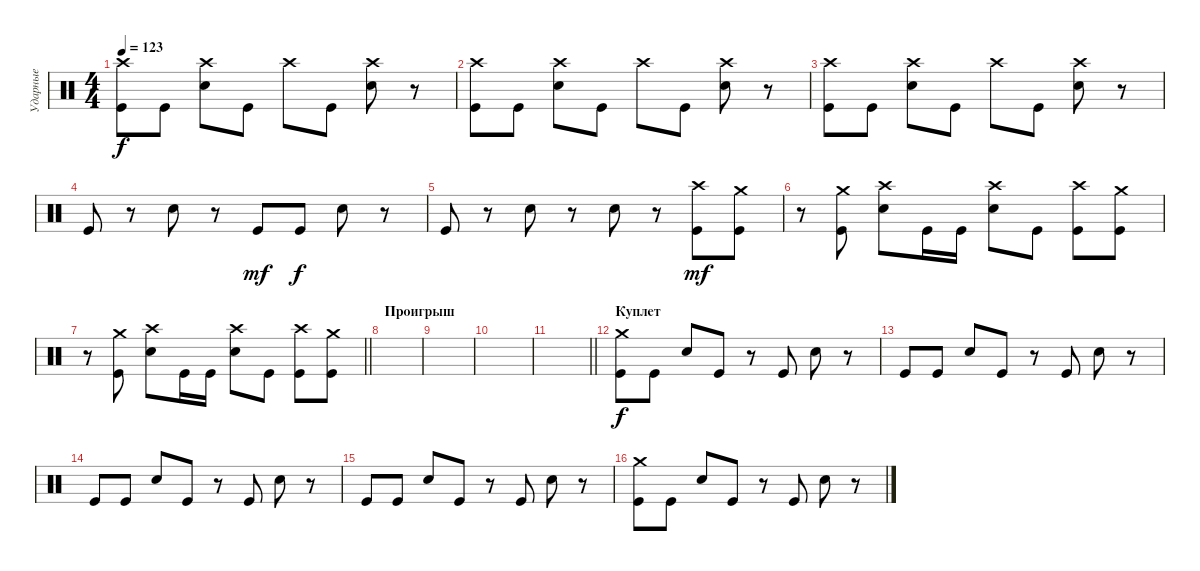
\track ("Ударные" "Ударные") {instrument percussion}
\staff {score}
\articulation defaults
\ts (4 4)
\tempo 123
\clef neutral
\ks c
("Crash high (hit)" "Kick (hit)").8{dy f} "Kick (hit)".8 ("Crash high (hit)" "Electric Snare (hit)").8 "Kick (hit)".8 "Crash high (hit)".8 "Kick (hit)".8 ("Crash high (hit)" "Electric Snare (hit)").8 r.8 |
("Crash high (hit)" "Kick (hit)").8 "Kick (hit)".8 ("Crash high (hit)" "Electric Snare (hit)").8 "Kick (hit)".8 "Crash high (hit)".8 "Kick (hit)".8 ("Crash high (hit)" "Electric Snare (hit)").8 r.8 |
("Crash high (hit)" "Kick (hit)").8 "Kick (hit)".8 ("Crash high (hit)" "Electric Snare (hit)").8 "Kick (hit)".8 "Crash high (hit)".8 "Kick (hit)".8 ("Crash high (hit)" "Electric Snare (hit)").8 r.8 |
"Kick (hit)".8 r.8 "Electric Snare (hit)".8 r.8 "Kick (hit)".8{dy mf} "Kick (hit)".8{dy f} "Electric Snare (hit)".8 r.8 |
"Kick (hit)".8 r.8 "Electric Snare (hit)".8 r.8 "Electric Snare (hit)".8 r.8 ("Crash high (hit)" "Kick (hit)").8{dy mf} ("Crash medium (hit)" "Kick (hit)").8 |
r.8 ("Crash medium (hit)" "Kick (hit)").8 ("Crash high (hit)" "Electric Snare (hit)").8 "Kick (hit)".16 "Kick (hit)".16 ("Crash high (hit)" "Electric Snare (hit)").8 "Kick (hit)".8 ("Crash high (hit)" "Kick (hit)").8 ("Crash medium (hit)" "Kick (hit)").8 |
\barLineRight lightlight
r.8 ("Crash medium (hit)" "Kick (hit)").8 ("Crash high (hit)" "Electric Snare (hit)").8 "Kick (hit)".16 "Kick (hit)".16 ("Crash high (hit)" "Electric Snare (hit)").8 "Kick (hit)".8 ("Crash high (hit)" "Kick (hit)").8 ("Crash medium (hit)" "Kick (hit)").8 |
\section ("" "Проигрыш")
|
|
|
\barLineRight lightlight
|
\section ("" "Куплет")
("Crash medium (hit)" "Kick (hit)").8{dy f} "Kick (hit)".8 "Electric Snare (hit)".8 "Kick (hit)".8 r.8 "Kick (hit)".8 "Electric Snare (hit)".8 r.8 |
"Kick (hit)".8 "Kick (hit)".8 "Electric Snare (hit)".8 "Kick (hit)".8 r.8 "Kick (hit)".8 "Electric Snare (hit)".8 r.8 |
"Kick (hit)".8 "Kick (hit)".8 "Electric Snare (hit)".8 "Kick (hit)".8 r.8 "Kick (hit)".8 "Electric Snare (hit)".8 r.8 |
"Kick (hit)".8 "Kick (hit)".8 "Electric Snare (hit)".8 "Kick (hit)".8 r.8 "Kick (hit)".8 "Electric Snare (hit)".8 r.8 |
("Crash medium (hit)" "Kick (hit)").8 "Kick (hit)".8 "Electric Snare (hit)".8 "Kick (hit)".8 r.8 "Kick (hit)".8 "Electric Snare (hit)".8 r.8
